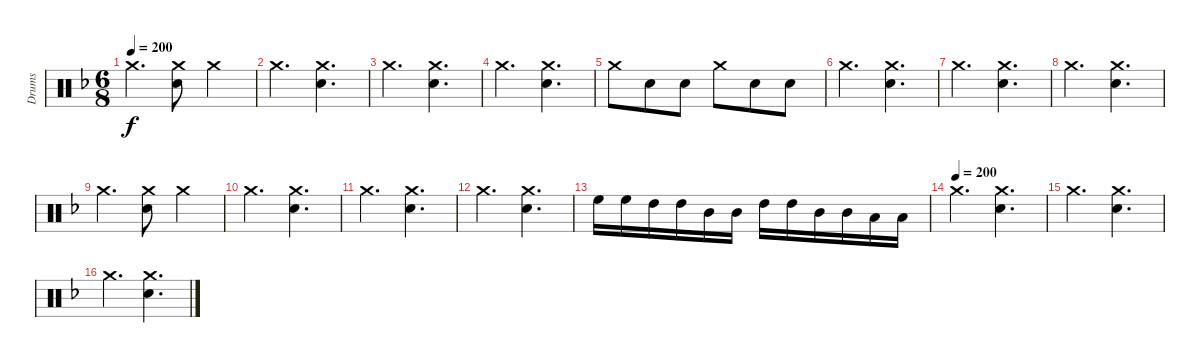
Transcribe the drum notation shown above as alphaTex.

\track ("Drums" "Drums") {instrument percussion}
\staff {score}
\articulation defaults
\ts (6 8)
\tempo 200
\clef neutral
\ks dminor "Crash medium (hit)".4{d dy f}
("Crash medium (hit)" "Snare (hit) 2").8 "Crash medium (hit)".4 |
"Crash medium (hit)".4{d} ("Crash medium (hit)" "Snare (hit) 2").4{d} |
"Crash medium (hit)".4{d} ("Crash medium (hit)" "Snare (hit) 2").4{d} |
"Crash medium (hit)".4{d} ("Crash medium (hit)" "Snare (hit) 2").4{d} |
"Crash medium (hit)".8 "Snare (hit) 2".8 "Snare (hit) 2".8 "Crash medium (hit)".8 "Snare (hit) 2".8 "Snare (hit) 2".8 |
"Crash medium (hit)".4{d} ("Crash medium (hit)" "Snare (hit) 2").4{d} |
"Crash medium (hit)".4{d} ("Crash medium (hit)" "Snare (hit) 2").4{d} |
"Crash medium (hit)".4{d} ("Crash medium (hit)" "Snare (hit) 2").4{d} |
"Crash medium (hit)".4{d} ("Crash medium (hit)" "Snare (hit) 2").8 "Crash medium (hit)".4 |
"Crash medium (hit)".4{d} ("Crash medium (hit)" "Snare (hit) 2").4{d} |
"Crash medium (hit)".4{d} ("Crash medium (hit)" "Snare (hit) 2").4{d} |
"Crash medium (hit)".4{d} ("Crash medium (hit)" "Snare (hit) 2").4{d} |
"High Floor Tom (hit)".16 "High Floor Tom (hit)".16 "High Tom (hit)".16 "High Tom (hit)".16 "Mid Tom (hit)".16 "Mid Tom (hit)".16 "High Tom (hit)".16 "High Tom (hit)".16 "Mid Tom (hit)".16 "Mid Tom (hit)".16 "Low Tom (hit)".16 "Low Tom (hit)".16 |
\tempo (200)
"Crash medium (hit)".4{d} ("Crash medium (hit)" "Snare (hit) 2").4{d} |
"Crash medium (hit)".4{d} ("Crash medium (hit)" "Snare (hit) 2").4{d} |
"Crash medium (hit)".4{d} ("Crash medium (hit)" "Snare (hit) 2").4{d}
